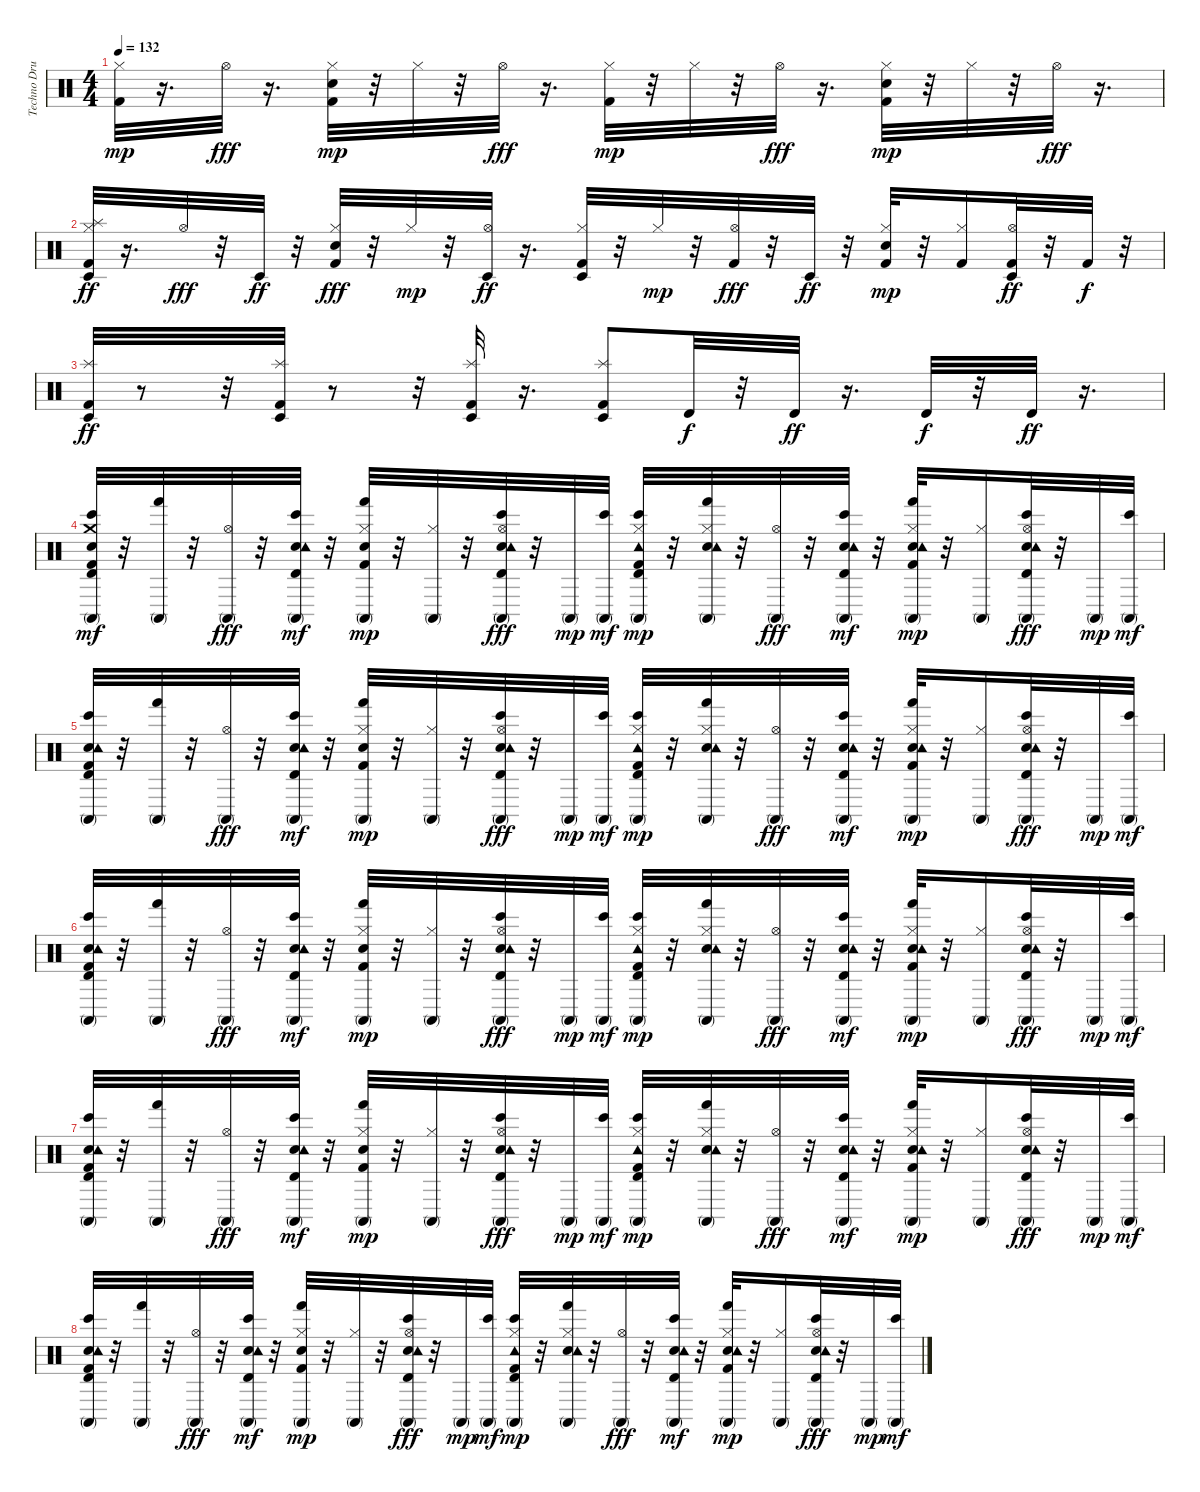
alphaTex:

\track ("Techno Drums" "Techno Dru") {instrument percussion}
\staff {score}
\articulation defaults
\ts (4 4)
\tempo 132
\clef neutral
\ks c
("Kick (hit) 2" "Hi-Hat (closed)").32{dy mp} r.16{d} "Hi-Hat (open)".32{dy fff} r.16{d} ("Kick (hit) 2" "Hand Clap (hit)" "Hi-Hat (closed)").32{dy mp} r.32 "Hi-Hat (closed)".32 r.32 "Hi-Hat (open)".32{dy fff} r.16{d} ("Kick (hit) 2" "Hi-Hat (closed)").32{dy mp} r.32 "Hi-Hat (closed)".32 r.32 "Hi-Hat (open)".32{dy fff} r.16{d} ("Kick (hit) 2" "Hand Clap (hit)" "Hi-Hat (closed)").32{dy mp} r.32 "Hi-Hat (closed)".32 r.32 "Hi-Hat (open)".32{dy fff} r.16{d} |
("Kick (hit) 2" "Hi-Hat (closed)" "Splash (hit)" "Timbale low (hit)").32{dy ff} r.16{d} "Hi-Hat (open)".32{dy fff} r.32 "Timbale low (hit)".32{dy ff} r.32 ("Hand Clap (hit)" "Hi-Hat (closed)" "Kick (hit) 2").32{dy fff} r.32 "Hi-Hat (closed)".32{dy mp} r.32 ("Hi-Hat (open)" "Timbale low (hit)").32{dy ff} r.16{d} ("Hi-Hat (closed)" "Kick (hit) 2" "Timbale low (hit)").32 r.32 "Hi-Hat (closed)".32{dy mp} r.32 ("Hi-Hat (open)" "Kick (hit) 2").32{dy fff} r.32 "Timbale low (hit)".32{dy ff} r.32 ("Hi-Hat (closed)" "Kick (hit) 2" "Hand Clap (hit)").32{dy mp} r.32 ("Hi-Hat (closed)" "Kick (hit) 2").16 ("Hi-Hat (open)" "Kick (hit) 2" "Timbale low (hit)").32{dy ff} r.32 "Kick (hit) 2".32{dy f} r.32 |
("Kick (hit) 2" "Timbale low (hit)" "Splash (hit)").32{dy ff} r.8 r.32 ("Kick (hit) 2" "Timbale low (hit)" "Splash (hit)").32 r.8 r.32 ("Kick (hit) 2" "Timbale low (hit)" "Splash (hit)").32 r.16{d} ("Timbale low (hit)" "Splash (hit)" "Kick (hit) 2").8 "Timbale high (hit)".32{dy f} r.32 "Timbale high (hit)".32{dy ff} r.16{d} "Timbale high (hit)".32{dy f} r.32 "Timbale high (hit)".32{dy ff} r.16{d} |
("Kick (hit) 2" "Hand Clap (hit)" "Crash medium (hit)" "Conga high (mute)" "Bongo High (hit)" "Timbale high (hit)").32{dy mf} r.32 ("Conga high (mute)" "Hand (hit)").32 r.32 ("Conga high (mute)" "Hi-Hat (open)").32{dy fff} r.32 ("Hand Clap (hit)" "Tambourine (hit)" "Conga high (mute)" "Bongo High (hit)" "Timbale high (hit)").32{dy mf} r.32 ("Kick (hit) 2" "Hand Clap (hit)" "Conga high (mute)" "Hand (hit)" "Hi-Hat (closed)").32{dy mp} r.32 ("Conga high (mute)" "Hi-Hat (closed)").32 r.32 ("Hand Clap (hit)" "Tambourine (hit)" "Conga high (mute)" "Bongo High (hit)" "Timbale high (hit)" "Hi-Hat (open)").32{dy fff} r.32 "Conga high (mute)".32{dy mp} ("Conga high (mute)" "Bongo High (hit)").32{dy mf} ("Kick (hit) 2" "Tambourine (hit)" "Conga high (mute)" "Bongo High (hit)" "Timbale high (hit)" "Hi-Hat (closed)").32{dy mp} r.32 ("Hand Clap (hit)" "Tambourine (hit)" "Conga high (mute)" "Hand (hit)" "Hi-Hat (closed)").32 r.32 ("Conga high (mute)" "Hi-Hat (open)").32{dy fff} r.32 ("Hand Clap (hit)" "Tambourine (hit)" "Conga high (mute)" "Bongo High (hit)" "Timbale high (hit)").32{dy mf} r.32 ("Kick (hit) 2" "Hand Clap (hit)" "Tambourine (hit)" "Conga high (mute)" "Hand (hit)" "Hi-Hat (closed)").32{dy mp} r.32 ("Conga high (mute)" "Hi-Hat (closed)").16 ("Hand Clap (hit)" "Tambourine (hit)" "Conga high (mute)" "Bongo High (hit)" "Timbale high (hit)" "Hi-Hat (open)").32{dy fff} r.32 "Conga high (mute)".32{dy mp} ("Conga high (mute)" "Bongo High (hit)").32{dy mf} |
("Kick (hit) 2" "Hand Clap (hit)" "Tambourine (hit)" "Conga high (mute)" "Bongo High (hit)" "Timbale high (hit)").32 r.32 ("Conga high (mute)" "Hand (hit)").32 r.32 ("Conga high (mute)" "Hi-Hat (open)").32{dy fff} r.32 ("Hand Clap (hit)" "Tambourine (hit)" "Conga high (mute)" "Bongo High (hit)" "Timbale high (hit)").32{dy mf} r.32 ("Kick (hit) 2" "Hand Clap (hit)" "Conga high (mute)" "Hand (hit)" "Hi-Hat (closed)").32{dy mp} r.32 ("Conga high (mute)" "Hi-Hat (closed)").32 r.32 ("Hand Clap (hit)" "Tambourine (hit)" "Conga high (mute)" "Bongo High (hit)" "Timbale high (hit)" "Hi-Hat (open)").32{dy fff} r.32 "Conga high (mute)".32{dy mp} ("Conga high (mute)" "Bongo High (hit)").32{dy mf} ("Kick (hit) 2" "Tambourine (hit)" "Conga high (mute)" "Bongo High (hit)" "Timbale high (hit)" "Hi-Hat (closed)").32{dy mp} r.32 ("Hand Clap (hit)" "Tambourine (hit)" "Conga high (mute)" "Hand (hit)" "Hi-Hat (closed)").32 r.32 ("Conga high (mute)" "Hi-Hat (open)").32{dy fff} r.32 ("Hand Clap (hit)" "Tambourine (hit)" "Conga high (mute)" "Bongo High (hit)" "Timbale high (hit)").32{dy mf} r.32 ("Kick (hit) 2" "Hand Clap (hit)" "Tambourine (hit)" "Conga high (mute)" "Hand (hit)" "Hi-Hat (closed)").32{dy mp} r.32 ("Conga high (mute)" "Hi-Hat (closed)").16 ("Hand Clap (hit)" "Tambourine (hit)" "Conga high (mute)" "Bongo High (hit)" "Timbale high (hit)" "Hi-Hat (open)").32{dy fff} r.32 "Conga high (mute)".32{dy mp} ("Conga high (mute)" "Bongo High (hit)").32{dy mf} |
("Kick (hit) 2" "Hand Clap (hit)" "Tambourine (hit)" "Conga high (mute)" "Bongo High (hit)" "Timbale high (hit)").32 r.32 ("Conga high (mute)" "Hand (hit)").32 r.32 ("Conga high (mute)" "Hi-Hat (open)").32{dy fff} r.32 ("Hand Clap (hit)" "Tambourine (hit)" "Conga high (mute)" "Bongo High (hit)" "Timbale high (hit)").32{dy mf} r.32 ("Kick (hit) 2" "Hand Clap (hit)" "Conga high (mute)" "Hand (hit)" "Hi-Hat (closed)").32{dy mp} r.32 ("Conga high (mute)" "Hi-Hat (closed)").32 r.32 ("Hand Clap (hit)" "Tambourine (hit)" "Conga high (mute)" "Bongo High (hit)" "Timbale high (hit)" "Hi-Hat (open)").32{dy fff} r.32 "Conga high (mute)".32{dy mp} ("Conga high (mute)" "Bongo High (hit)").32{dy mf} ("Kick (hit) 2" "Tambourine (hit)" "Conga high (mute)" "Bongo High (hit)" "Timbale high (hit)" "Hi-Hat (closed)").32{dy mp} r.32 ("Hand Clap (hit)" "Tambourine (hit)" "Conga high (mute)" "Hand (hit)" "Hi-Hat (closed)").32 r.32 ("Conga high (mute)" "Hi-Hat (open)").32{dy fff} r.32 ("Hand Clap (hit)" "Tambourine (hit)" "Conga high (mute)" "Bongo High (hit)" "Timbale high (hit)").32{dy mf} r.32 ("Kick (hit) 2" "Hand Clap (hit)" "Tambourine (hit)" "Conga high (mute)" "Hand (hit)" "Hi-Hat (closed)").32{dy mp} r.32 ("Conga high (mute)" "Hi-Hat (closed)").16 ("Hand Clap (hit)" "Tambourine (hit)" "Conga high (mute)" "Bongo High (hit)" "Timbale high (hit)" "Hi-Hat (open)").32{dy fff} r.32 "Conga high (mute)".32{dy mp} ("Conga high (mute)" "Bongo High (hit)").32{dy mf} |
("Kick (hit) 2" "Hand Clap (hit)" "Tambourine (hit)" "Conga high (mute)" "Bongo High (hit)" "Timbale high (hit)").32 r.32 ("Conga high (mute)" "Hand (hit)").32 r.32 ("Conga high (mute)" "Hi-Hat (open)").32{dy fff} r.32 ("Hand Clap (hit)" "Tambourine (hit)" "Conga high (mute)" "Bongo High (hit)" "Timbale high (hit)").32{dy mf} r.32 ("Kick (hit) 2" "Hand Clap (hit)" "Conga high (mute)" "Hand (hit)" "Hi-Hat (closed)").32{dy mp} r.32 ("Conga high (mute)" "Hi-Hat (closed)").32 r.32 ("Hand Clap (hit)" "Tambourine (hit)" "Conga high (mute)" "Bongo High (hit)" "Timbale high (hit)" "Hi-Hat (open)").32{dy fff} r.32 "Conga high (mute)".32{dy mp} ("Conga high (mute)" "Bongo High (hit)").32{dy mf} ("Kick (hit) 2" "Tambourine (hit)" "Conga high (mute)" "Bongo High (hit)" "Timbale high (hit)" "Hi-Hat (closed)").32{dy mp} r.32 ("Hand Clap (hit)" "Tambourine (hit)" "Conga high (mute)" "Hand (hit)" "Hi-Hat (closed)").32 r.32 ("Conga high (mute)" "Hi-Hat (open)").32{dy fff} r.32 ("Hand Clap (hit)" "Tambourine (hit)" "Conga high (mute)" "Bongo High (hit)" "Timbale high (hit)").32{dy mf} r.32 ("Kick (hit) 2" "Hand Clap (hit)" "Tambourine (hit)" "Conga high (mute)" "Hand (hit)" "Hi-Hat (closed)").32{dy mp} r.32 ("Conga high (mute)" "Hi-Hat (closed)").16 ("Hand Clap (hit)" "Tambourine (hit)" "Conga high (mute)" "Bongo High (hit)" "Timbale high (hit)" "Hi-Hat (open)").32{dy fff} r.32 "Conga high (mute)".32{dy mp} ("Conga high (mute)" "Bongo High (hit)").32{dy mf} |
("Kick (hit) 2" "Hand Clap (hit)" "Tambourine (hit)" "Conga high (mute)" "Bongo High (hit)" "Timbale high (hit)").32 r.32 ("Conga high (mute)" "Hand (hit)").32 r.32 ("Conga high (mute)" "Hi-Hat (open)").32{dy fff} r.32 ("Hand Clap (hit)" "Tambourine (hit)" "Conga high (mute)" "Bongo High (hit)" "Timbale high (hit)").32{dy mf} r.32 ("Kick (hit) 2" "Hand Clap (hit)" "Conga high (mute)" "Hand (hit)" "Hi-Hat (closed)").32{dy mp} r.32 ("Conga high (mute)" "Hi-Hat (closed)").32 r.32 ("Hand Clap (hit)" "Tambourine (hit)" "Conga high (mute)" "Bongo High (hit)" "Timbale high (hit)" "Hi-Hat (open)").32{dy fff} r.32 "Conga high (mute)".32{dy mp} ("Conga high (mute)" "Bongo High (hit)").32{dy mf} ("Kick (hit) 2" "Tambourine (hit)" "Conga high (mute)" "Bongo High (hit)" "Timbale high (hit)" "Hi-Hat (closed)").32{dy mp} r.32 ("Hand Clap (hit)" "Tambourine (hit)" "Conga high (mute)" "Hand (hit)" "Hi-Hat (closed)").32 r.32 ("Conga high (mute)" "Hi-Hat (open)").32{dy fff} r.32 ("Hand Clap (hit)" "Tambourine (hit)" "Conga high (mute)" "Bongo High (hit)" "Timbale high (hit)").32{dy mf} r.32 ("Kick (hit) 2" "Hand Clap (hit)" "Tambourine (hit)" "Conga high (mute)" "Hand (hit)" "Hi-Hat (closed)").32{dy mp} r.32 ("Conga high (mute)" "Hi-Hat (closed)").16 ("Hand Clap (hit)" "Tambourine (hit)" "Conga high (mute)" "Bongo High (hit)" "Timbale high (hit)" "Hi-Hat (open)").32{dy fff} r.32 "Conga high (mute)".32{dy mp} ("Conga high (mute)" "Bongo High (hit)").32{dy mf}
